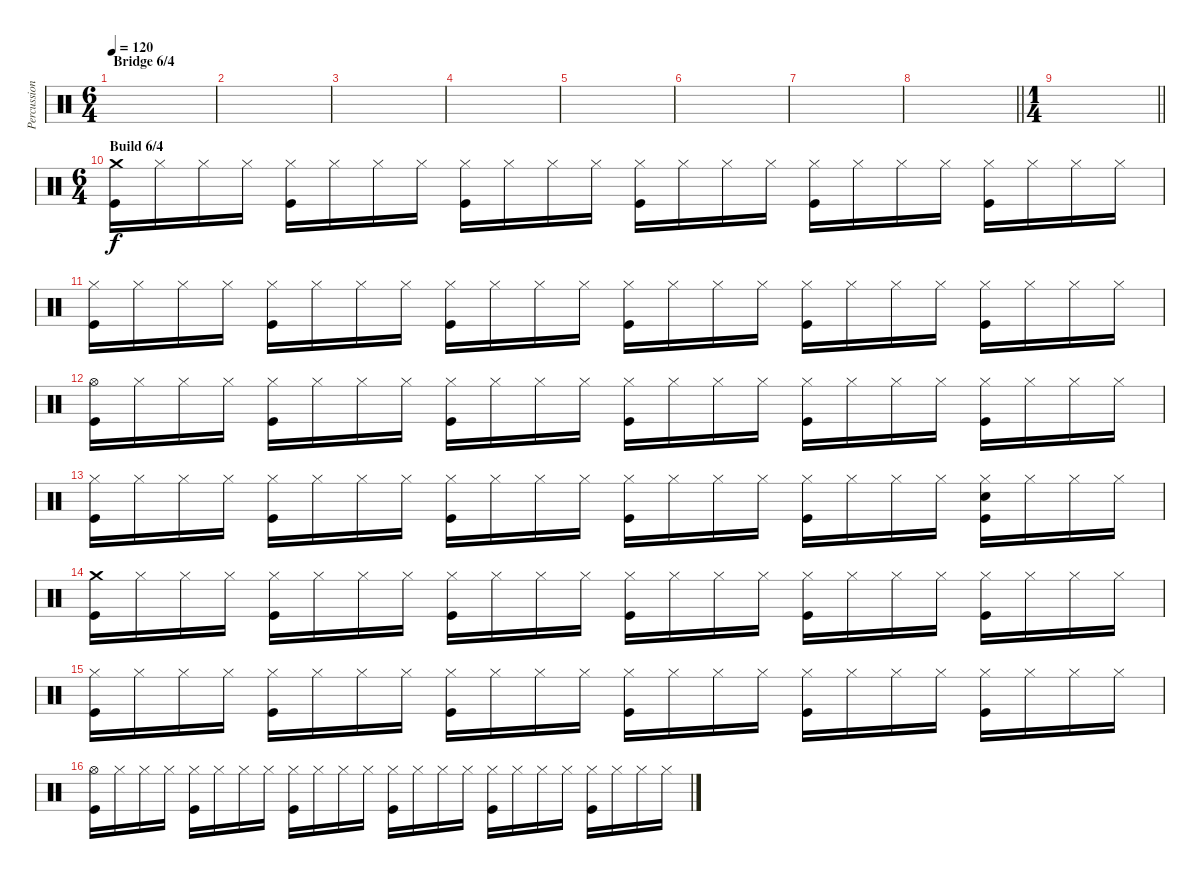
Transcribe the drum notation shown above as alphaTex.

\track ("Percussion" "Percussion") {instrument percussion}
\staff {score}
\articulation defaults
\ts (6 4)
\section ("" "Bridge 6/4")
\tempo 120
\clef neutral
\ks c
|
|
|
|
|
|
|
\barLineRight lightlight
|
\ts (1 4)
\barLineRight lightlight
|
\ts (6 4)
\section ("" "Build 6/4")
("Crash medium (hit)" "Kick (hit)").16 "Hi-Hat (closed)".16 "Hi-Hat (closed)".16 "Hi-Hat (closed)".16 ("Hi-Hat (closed)" "Kick (hit)").16 "Hi-Hat (closed)".16 "Hi-Hat (closed)".16 "Hi-Hat (closed)".16 ("Hi-Hat (closed)" "Kick (hit)").16 "Hi-Hat (closed)".16 "Hi-Hat (closed)".16 "Hi-Hat (closed)".16 ("Hi-Hat (closed)" "Kick (hit)").16 "Hi-Hat (closed)".16 "Hi-Hat (closed)".16 "Hi-Hat (closed)".16 ("Hi-Hat (closed)" "Kick (hit)").16 "Hi-Hat (closed)".16 "Hi-Hat (closed)".16 "Hi-Hat (closed)".16 ("Hi-Hat (closed)" "Kick (hit)").16 "Hi-Hat (closed)".16 "Hi-Hat (closed)".16 "Hi-Hat (closed)".16 |
("Hi-Hat (closed)" "Kick (hit)").16 "Hi-Hat (closed)".16 "Hi-Hat (closed)".16 "Hi-Hat (closed)".16 ("Hi-Hat (closed)" "Kick (hit)").16 "Hi-Hat (closed)".16 "Hi-Hat (closed)".16 "Hi-Hat (closed)".16 ("Hi-Hat (closed)" "Kick (hit)").16 "Hi-Hat (closed)".16 "Hi-Hat (closed)".16 "Hi-Hat (closed)".16 ("Hi-Hat (closed)" "Kick (hit)").16 "Hi-Hat (closed)".16 "Hi-Hat (closed)".16 "Hi-Hat (closed)".16 ("Hi-Hat (closed)" "Kick (hit)").16 "Hi-Hat (closed)".16 "Hi-Hat (closed)".16 "Hi-Hat (closed)".16 ("Hi-Hat (closed)" "Kick (hit)").16 "Hi-Hat (closed)".16 "Hi-Hat (closed)".16 "Hi-Hat (closed)".16 |
("Hi-Hat (open)" "Kick (hit)").16 "Hi-Hat (closed)".16 "Hi-Hat (closed)".16 "Hi-Hat (closed)".16 ("Hi-Hat (closed)" "Kick (hit)").16 "Hi-Hat (closed)".16 "Hi-Hat (closed)".16 "Hi-Hat (closed)".16 ("Hi-Hat (closed)" "Kick (hit)").16 "Hi-Hat (closed)".16 "Hi-Hat (closed)".16 "Hi-Hat (closed)".16 ("Hi-Hat (closed)" "Kick (hit)").16 "Hi-Hat (closed)".16 "Hi-Hat (closed)".16 "Hi-Hat (closed)".16 ("Hi-Hat (closed)" "Kick (hit)").16 "Hi-Hat (closed)".16 "Hi-Hat (closed)".16 "Hi-Hat (closed)".16 ("Hi-Hat (closed)" "Kick (hit)").16 "Hi-Hat (closed)".16 "Hi-Hat (closed)".16 "Hi-Hat (closed)".16 |
("Hi-Hat (closed)" "Kick (hit)").16 "Hi-Hat (closed)".16 "Hi-Hat (closed)".16 "Hi-Hat (closed)".16 ("Hi-Hat (closed)" "Kick (hit)").16 "Hi-Hat (closed)".16 "Hi-Hat (closed)".16 "Hi-Hat (closed)".16 ("Hi-Hat (closed)" "Kick (hit)").16 "Hi-Hat (closed)".16 "Hi-Hat (closed)".16 "Hi-Hat (closed)".16 ("Hi-Hat (closed)" "Kick (hit)").16 "Hi-Hat (closed)".16 "Hi-Hat (closed)".16 "Hi-Hat (closed)".16 ("Hi-Hat (closed)" "Kick (hit)").16 "Hi-Hat (closed)".16 "Hi-Hat (closed)".16 "Hi-Hat (closed)".16 ("Hi-Hat (closed)" "Electric Snare (hit)" "Kick (hit)").16 "Hi-Hat (closed)".16 "Hi-Hat (closed)".16 "Hi-Hat (closed)".16 |
("Crash medium (hit)" "Kick (hit)").16 "Hi-Hat (closed)".16 "Hi-Hat (closed)".16 "Hi-Hat (closed)".16 ("Hi-Hat (closed)" "Kick (hit)").16 "Hi-Hat (closed)".16 "Hi-Hat (closed)".16 "Hi-Hat (closed)".16 ("Hi-Hat (closed)" "Kick (hit)").16 "Hi-Hat (closed)".16 "Hi-Hat (closed)".16 "Hi-Hat (closed)".16 ("Hi-Hat (closed)" "Kick (hit)").16 "Hi-Hat (closed)".16 "Hi-Hat (closed)".16 "Hi-Hat (closed)".16 ("Hi-Hat (closed)" "Kick (hit)").16 "Hi-Hat (closed)".16 "Hi-Hat (closed)".16 "Hi-Hat (closed)".16 ("Hi-Hat (closed)" "Kick (hit)").16 "Hi-Hat (closed)".16 "Hi-Hat (closed)".16 "Hi-Hat (closed)".16 |
("Hi-Hat (closed)" "Kick (hit)").16 "Hi-Hat (closed)".16 "Hi-Hat (closed)".16 "Hi-Hat (closed)".16 ("Hi-Hat (closed)" "Kick (hit)").16 "Hi-Hat (closed)".16 "Hi-Hat (closed)".16 "Hi-Hat (closed)".16 ("Hi-Hat (closed)" "Kick (hit)").16 "Hi-Hat (closed)".16 "Hi-Hat (closed)".16 "Hi-Hat (closed)".16 ("Hi-Hat (closed)" "Kick (hit)").16 "Hi-Hat (closed)".16 "Hi-Hat (closed)".16 "Hi-Hat (closed)".16 ("Hi-Hat (closed)" "Kick (hit)").16 "Hi-Hat (closed)".16 "Hi-Hat (closed)".16 "Hi-Hat (closed)".16 ("Hi-Hat (closed)" "Kick (hit)").16 "Hi-Hat (closed)".16 "Hi-Hat (closed)".16 "Hi-Hat (closed)".16 |
("Hi-Hat (open)" "Kick (hit)").16 "Hi-Hat (closed)".16 "Hi-Hat (closed)".16 "Hi-Hat (closed)".16 ("Hi-Hat (closed)" "Kick (hit)").16 "Hi-Hat (closed)".16 "Hi-Hat (closed)".16 "Hi-Hat (closed)".16 ("Hi-Hat (closed)" "Kick (hit)").16 "Hi-Hat (closed)".16 "Hi-Hat (closed)".16 "Hi-Hat (closed)".16 ("Hi-Hat (closed)" "Kick (hit)").16 "Hi-Hat (closed)".16 "Hi-Hat (closed)".16 "Hi-Hat (closed)".16 ("Hi-Hat (closed)" "Kick (hit)").16 "Hi-Hat (closed)".16 "Hi-Hat (closed)".16 "Hi-Hat (closed)".16 ("Hi-Hat (closed)" "Kick (hit)").16 "Hi-Hat (closed)".16 "Hi-Hat (closed)".16 "Hi-Hat (closed)".16
